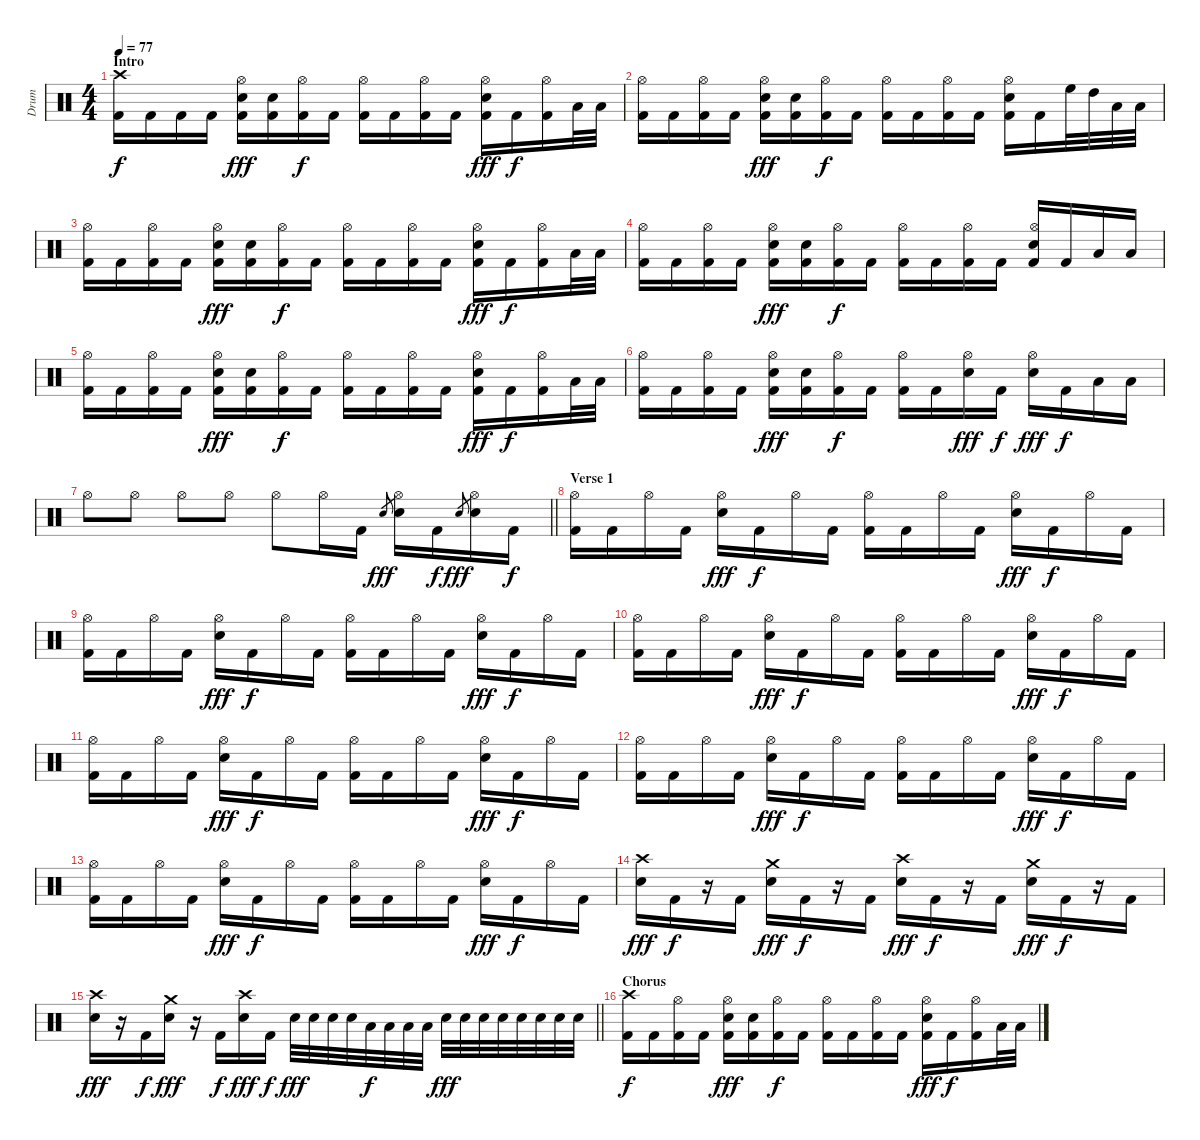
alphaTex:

\track ("Drum" "Drum") {instrument percussion}
\staff {score}
\articulation defaults
\ts (4 4)
\section ("" "Intro")
\tempo 77
\clef neutral
\ks c
("Crash high (hit)" "Kick (hit) 2").16{dy f} "Kick (hit) 2".16 "Kick (hit) 2".16 "Kick (hit) 2".16 ("Hi-Hat (open)" "Electric Snare (hit)" "Kick (hit) 2").16{dy fff} ("Electric Snare (hit)" "Kick (hit) 2").16 ("Hi-Hat (open)" "Kick (hit) 2").16{dy f} "Kick (hit) 2".16 ("Hi-Hat (open)" "Kick (hit) 2").16 "Kick (hit) 2".16 ("Hi-Hat (open)" "Kick (hit) 2").16 "Kick (hit) 2".16 ("Hi-Hat (open)" "Electric Snare (hit)" "Kick (hit) 2").16{dy fff} "Kick (hit) 2".16{dy f} ("Hi-Hat (open)" "Kick (hit) 2").16 "Low Tom (hit)".32 "Low Floor Tom (hit)".32 |
("Hi-Hat (open)" "Kick (hit) 2").16 "Kick (hit) 2".16 ("Hi-Hat (open)" "Kick (hit) 2").16 "Kick (hit) 2".16 ("Hi-Hat (open)" "Electric Snare (hit)" "Kick (hit) 2").16{dy fff} ("Electric Snare (hit)" "Kick (hit) 2").16 ("Hi-Hat (open)" "Kick (hit) 2").16{dy f} "Kick (hit) 2".16 ("Hi-Hat (open)" "Kick (hit) 2").16 "Kick (hit) 2".16 ("Hi-Hat (open)" "Kick (hit) 2").16 "Kick (hit) 2".16 ("Hi-Hat (open)" "Electric Snare (hit)" "Kick (hit) 2").16 "Kick (hit) 2".16 "High Floor Tom (hit)".32 "High Tom (hit)".32 "Low Tom (hit)".32 "Low Floor Tom (hit)".32 |
("Hi-Hat (open)" "Kick (hit) 2").16 "Kick (hit) 2".16 ("Hi-Hat (open)" "Kick (hit) 2").16 "Kick (hit) 2".16 ("Hi-Hat (open)" "Electric Snare (hit)" "Kick (hit) 2").16{dy fff} ("Electric Snare (hit)" "Kick (hit) 2").16 ("Hi-Hat (open)" "Kick (hit) 2").16{dy f} "Kick (hit) 2".16 ("Hi-Hat (open)" "Kick (hit) 2").16 "Kick (hit) 2".16 ("Hi-Hat (open)" "Kick (hit) 2").16 "Kick (hit) 2".16 ("Hi-Hat (open)" "Electric Snare (hit)" "Kick (hit) 2").16{dy fff} "Kick (hit) 2".16{dy f} ("Hi-Hat (open)" "Kick (hit) 2").16 "Low Tom (hit)".32 "Low Floor Tom (hit)".32 |
("Hi-Hat (open)" "Kick (hit) 2").16 "Kick (hit) 2".16 ("Hi-Hat (open)" "Kick (hit) 2").16 "Kick (hit) 2".16 ("Hi-Hat (open)" "Electric Snare (hit)" "Kick (hit) 2").16{dy fff} ("Electric Snare (hit)" "Kick (hit) 2").16 ("Hi-Hat (open)" "Kick (hit) 2").16{dy f} "Kick (hit) 2".16 ("Hi-Hat (open)" "Kick (hit) 2").16 "Kick (hit) 2".16 ("Hi-Hat (open)" "Kick (hit) 2").16 "Kick (hit) 2".16 ("Hi-Hat (open)" "Electric Snare (hit)" "Kick (hit) 2").16 "Kick (hit) 2".16 "Low Tom (hit)".16 "Low Floor Tom (hit)".16 |
("Hi-Hat (open)" "Kick (hit) 2").16 "Kick (hit) 2".16 ("Hi-Hat (open)" "Kick (hit) 2").16 "Kick (hit) 2".16 ("Hi-Hat (open)" "Electric Snare (hit)" "Kick (hit) 2").16{dy fff} ("Electric Snare (hit)" "Kick (hit) 2").16 ("Hi-Hat (open)" "Kick (hit) 2").16{dy f} "Kick (hit) 2".16 ("Hi-Hat (open)" "Kick (hit) 2").16 "Kick (hit) 2".16 ("Hi-Hat (open)" "Kick (hit) 2").16 "Kick (hit) 2".16 ("Hi-Hat (open)" "Electric Snare (hit)" "Kick (hit) 2").16{dy fff} "Kick (hit) 2".16{dy f} ("Hi-Hat (open)" "Kick (hit) 2").16 "Low Tom (hit)".32 "Low Floor Tom (hit)".32 |
("Hi-Hat (open)" "Kick (hit) 2").16 "Kick (hit) 2".16 ("Hi-Hat (open)" "Kick (hit) 2").16 "Kick (hit) 2".16 ("Hi-Hat (open)" "Electric Snare (hit)" "Kick (hit) 2").16{dy fff} ("Electric Snare (hit)" "Kick (hit) 2").16 ("Hi-Hat (open)" "Kick (hit) 2").16{dy f} "Kick (hit) 2".16 ("Hi-Hat (open)" "Kick (hit) 2").16 "Kick (hit) 2".16 ("Hi-Hat (open)" "Electric Snare (hit)").16{dy fff} "Kick (hit) 2".16{dy f} ("Hi-Hat (open)" "Electric Snare (hit)").16{dy fff} "Kick (hit) 2".16{dy f} "Low Tom (hit)".16 "Low Floor Tom (hit)".16 |
\barLineRight lightlight "Hi-Hat (open)".8 "Hi-Hat (open)".8 "Hi-Hat (open)".8 "Hi-Hat (open)".8 "Hi-Hat (open)".8 "Hi-Hat (open)".16 "Kick (hit) 2".16 "Electric Snare (hit)".8{gr dy fff}
("Hi-Hat (open)" "Electric Snare (hit)").16 "Kick (hit) 2".16{dy f} "Electric Snare (hit)".8{gr dy fff} ("Hi-Hat (open)" "Electric Snare (hit)").16 "Kick (hit) 2".16{dy f} |
\section ("" "Verse 1")
("Hi-Hat (open)" "Kick (hit) 2").16 "Kick (hit) 2".16 "Hi-Hat (open)".16 "Kick (hit) 2".16 ("Hi-Hat (open)" "Electric Snare (hit)").16{dy fff} "Kick (hit) 2".16{dy f} "Hi-Hat (open)".16 "Kick (hit) 2".16 ("Hi-Hat (open)" "Kick (hit) 2").16 "Kick (hit) 2".16 "Hi-Hat (open)".16 "Kick (hit) 2".16 ("Hi-Hat (open)" "Electric Snare (hit)").16{dy fff} "Kick (hit) 2".16{dy f} "Hi-Hat (open)".16 "Kick (hit) 2".16 |
("Hi-Hat (open)" "Kick (hit) 2").16 "Kick (hit) 2".16 "Hi-Hat (open)".16 "Kick (hit) 2".16 ("Hi-Hat (open)" "Electric Snare (hit)").16{dy fff} "Kick (hit) 2".16{dy f} "Hi-Hat (open)".16 "Kick (hit) 2".16 ("Hi-Hat (open)" "Kick (hit) 2").16 "Kick (hit) 2".16 "Hi-Hat (open)".16 "Kick (hit) 2".16 ("Hi-Hat (open)" "Electric Snare (hit)").16{dy fff} "Kick (hit) 2".16{dy f} "Hi-Hat (open)".16 "Kick (hit) 2".16 |
("Hi-Hat (open)" "Kick (hit) 2").16 "Kick (hit) 2".16 "Hi-Hat (open)".16 "Kick (hit) 2".16 ("Hi-Hat (open)" "Electric Snare (hit)").16{dy fff} "Kick (hit) 2".16{dy f} "Hi-Hat (open)".16 "Kick (hit) 2".16 ("Hi-Hat (open)" "Kick (hit) 2").16 "Kick (hit) 2".16 "Hi-Hat (open)".16 "Kick (hit) 2".16 ("Hi-Hat (open)" "Electric Snare (hit)").16{dy fff} "Kick (hit) 2".16{dy f} "Hi-Hat (open)".16 "Kick (hit) 2".16 |
("Hi-Hat (open)" "Kick (hit) 2").16 "Kick (hit) 2".16 "Hi-Hat (open)".16 "Kick (hit) 2".16 ("Hi-Hat (open)" "Electric Snare (hit)").16{dy fff} "Kick (hit) 2".16{dy f} "Hi-Hat (open)".16 "Kick (hit) 2".16 ("Hi-Hat (open)" "Kick (hit) 2").16 "Kick (hit) 2".16 "Hi-Hat (open)".16 "Kick (hit) 2".16 ("Hi-Hat (open)" "Electric Snare (hit)").16{dy fff} "Kick (hit) 2".16{dy f} "Hi-Hat (open)".16 "Kick (hit) 2".16 |
("Hi-Hat (open)" "Kick (hit) 2").16 "Kick (hit) 2".16 "Hi-Hat (open)".16 "Kick (hit) 2".16 ("Hi-Hat (open)" "Electric Snare (hit)").16{dy fff} "Kick (hit) 2".16{dy f} "Hi-Hat (open)".16 "Kick (hit) 2".16 ("Hi-Hat (open)" "Kick (hit) 2").16 "Kick (hit) 2".16 "Hi-Hat (open)".16 "Kick (hit) 2".16 ("Hi-Hat (open)" "Electric Snare (hit)").16{dy fff} "Kick (hit) 2".16{dy f} "Hi-Hat (open)".16 "Kick (hit) 2".16 |
("Hi-Hat (open)" "Kick (hit) 2").16 "Kick (hit) 2".16 "Hi-Hat (open)".16 "Kick (hit) 2".16 ("Hi-Hat (open)" "Electric Snare (hit)").16{dy fff} "Kick (hit) 2".16{dy f} "Hi-Hat (open)".16 "Kick (hit) 2".16 ("Hi-Hat (open)" "Kick (hit) 2").16 "Kick (hit) 2".16 "Hi-Hat (open)".16 "Kick (hit) 2".16 ("Hi-Hat (open)" "Electric Snare (hit)").16{dy fff} "Kick (hit) 2".16{dy f} "Hi-Hat (open)".16 "Kick (hit) 2".16 |
("Crash high (hit)" "Electric Snare (hit)").16{dy fff} "Kick (hit) 2".16{dy f} r.16 "Kick (hit) 2".16 ("Crash medium (hit)" "Electric Snare (hit)").16{dy fff} "Kick (hit) 2".16{dy f} r.16 "Kick (hit) 2".16 ("Crash high (hit)" "Electric Snare (hit)").16{dy fff} "Kick (hit) 2".16{dy f} r.16 "Kick (hit) 2".16 ("Crash medium (hit)" "Electric Snare (hit)").16{dy fff} "Kick (hit) 2".16{dy f} r.16 "Kick (hit) 2".16 |
\barLineRight lightlight
("Crash high (hit)" "Electric Snare (hit)").16{dy fff} r.16 "Kick (hit) 2".16{dy f} ("Crash medium (hit)" "Electric Snare (hit)").16{dy fff} r.16 "Kick (hit) 2".16{dy f} ("Crash high (hit)" "Electric Snare (hit)").16{dy fff} "Kick (hit) 2".16{dy f} "Electric Snare (hit)".32{dy fff} "Electric Snare (hit)".32 "Electric Snare (hit)".32 "Electric Snare (hit)".32 "Low Tom (hit)".32{dy f} "Low Tom (hit)".32 "Low Tom (hit)".32 "Low Tom (hit)".32 "Electric Snare (hit)".32{dy fff} "Electric Snare (hit)".32 "Electric Snare (hit)".32 "Electric Snare (hit)".32 "Electric Snare (hit)".32 "Electric Snare (hit)".32 "Electric Snare (hit)".32 "Electric Snare (hit)".32 |
\section ("" "Chorus")
("Crash high (hit)" "Kick (hit) 2").16{dy f} "Kick (hit) 2".16 ("Hi-Hat (open)" "Kick (hit) 2").16 "Kick (hit) 2".16 ("Hi-Hat (open)" "Electric Snare (hit)" "Kick (hit) 2").16{dy fff} ("Electric Snare (hit)" "Kick (hit) 2").16 ("Hi-Hat (open)" "Kick (hit) 2").16{dy f} "Kick (hit) 2".16 ("Hi-Hat (open)" "Kick (hit) 2").16 "Kick (hit) 2".16 ("Hi-Hat (open)" "Kick (hit) 2").16 "Kick (hit) 2".16 ("Hi-Hat (open)" "Electric Snare (hit)" "Kick (hit) 2").16{dy fff} "Kick (hit) 2".16{dy f} ("Hi-Hat (open)" "Kick (hit) 2").16 "Low Tom (hit)".32 "Low Floor Tom (hit)".32
